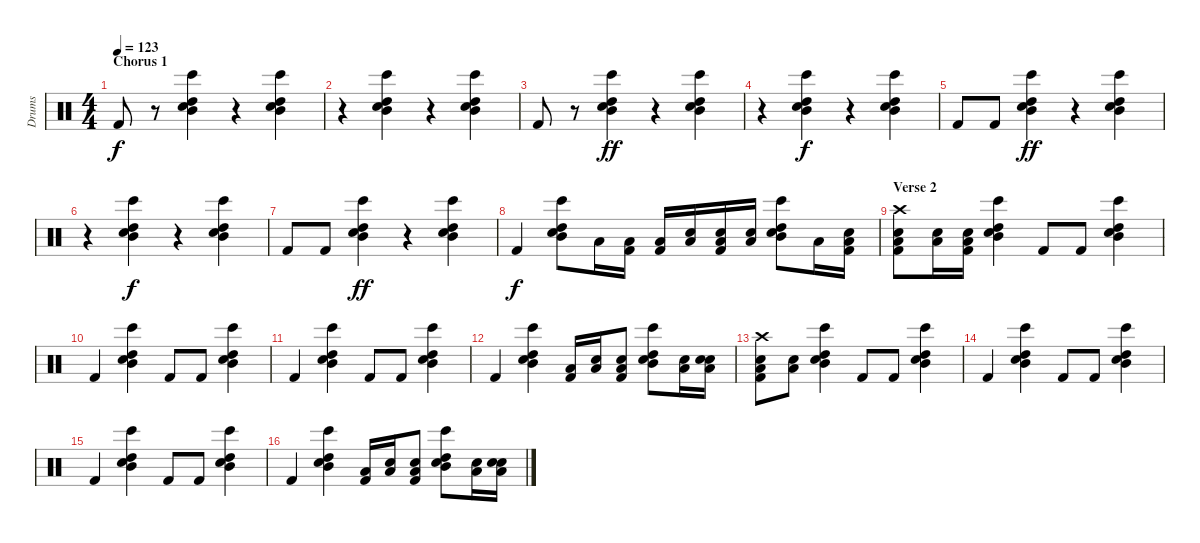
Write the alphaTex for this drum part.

\track ("Drums" "Drums") {instrument percussion}
\staff {score}
\articulation defaults
\ts (4 4)
\section ("" "Chorus 1")
\tempo 123
\clef neutral
\ks c "Kick (hit) 2".8{dy f}
r.8 ("Bongo High (hit)" "High Tom (hit)" "Mid Tom (hit)" "Snare (hit) 2").4 r.4 ("Bongo High (hit)" "High Tom (hit)" "Mid Tom (hit)" "Snare (hit) 2").4 |
r.4 ("Bongo High (hit)" "High Tom (hit)" "Mid Tom (hit)" "Snare (hit) 2").4 r.4 ("Bongo High (hit)" "High Tom (hit)" "Mid Tom (hit)" "Snare (hit) 2").4 |
"Kick (hit) 2".8 r.8 ("Bongo High (hit)" "High Tom (hit)" "Mid Tom (hit)" "Snare (hit) 2").4{dy ff} r.4 ("Bongo High (hit)" "High Tom (hit)" "Mid Tom (hit)" "Snare (hit) 2").4 |
r.4 ("Bongo High (hit)" "High Tom (hit)" "Mid Tom (hit)" "Snare (hit) 2").4{dy f} r.4 ("Bongo High (hit)" "High Tom (hit)" "Mid Tom (hit)" "Snare (hit) 2").4 |
"Kick (hit) 2".8 "Kick (hit) 2".8 ("Bongo High (hit)" "High Tom (hit)" "Mid Tom (hit)" "Snare (hit) 2").4{dy ff} r.4 ("Bongo High (hit)" "High Tom (hit)" "Mid Tom (hit)" "Snare (hit) 2").4 |
r.4 ("Bongo High (hit)" "High Tom (hit)" "Mid Tom (hit)" "Snare (hit) 2").4{dy f} r.4 ("Bongo High (hit)" "High Tom (hit)" "Mid Tom (hit)" "Snare (hit) 2").4 |
"Kick (hit) 2".8 "Kick (hit) 2".8 ("Bongo High (hit)" "High Tom (hit)" "Mid Tom (hit)" "Snare (hit) 2").4{dy ff} r.4 ("Bongo High (hit)" "High Tom (hit)" "Mid Tom (hit)" "Snare (hit) 2").4 |
"Kick (hit) 2".4{dy f} ("Bongo High (hit)" "High Tom (hit)" "Mid Tom (hit)" "Snare (hit) 2").8 "Low Tom (hit)".16 ("Low Tom (hit)" "Kick (hit) 2").16 ("Low Tom (hit)" "Kick (hit) 2").16 ("Snare (hit) 2" "Low Tom (hit)").16 ("Snare (hit) 2" "Low Tom (hit)" "Kick (hit) 2").16 ("Snare (hit) 2" "Low Floor Tom (hit)").16 ("Bongo High (hit)" "High Tom (hit)" "Mid Tom (hit)" "Snare (hit) 2").8 "Low Floor Tom (hit)".16 ("Snare (hit) 2" "Low Floor Tom (hit)" "Kick (hit) 2").16 |
\section ("" "Verse 2")
("Crash high (hit)" "Snare (hit) 2" "Low Tom (hit)" "Kick (hit) 2").8 ("Snare (hit) 2" "Low Tom (hit)").16 ("Snare (hit) 2" "Low Tom (hit)" "Kick (hit) 2").16 ("Bongo High (hit)" "High Tom (hit)" "Mid Tom (hit)" "Snare (hit) 2").4 "Kick (hit) 2".8 "Kick (hit) 2".8 ("Bongo High (hit)" "High Tom (hit)" "Mid Tom (hit)" "Snare (hit) 2").4 |
"Kick (hit) 2".4 ("Bongo High (hit)" "High Tom (hit)" "Mid Tom (hit)" "Snare (hit) 2").4 "Kick (hit) 2".8 "Kick (hit) 2".8 ("Bongo High (hit)" "High Tom (hit)" "Mid Tom (hit)" "Snare (hit) 2").4 |
"Kick (hit) 2".4 ("Bongo High (hit)" "High Tom (hit)" "Mid Tom (hit)" "Snare (hit) 2").4 "Kick (hit) 2".8 "Kick (hit) 2".8 ("Bongo High (hit)" "High Tom (hit)" "Mid Tom (hit)" "Snare (hit) 2").4 |
"Kick (hit) 2".4 ("Bongo High (hit)" "High Tom (hit)" "Mid Tom (hit)" "Snare (hit) 2").4 ("Low Floor Tom (hit)" "Kick (hit) 2").16 ("Snare (hit) 2" "Low Floor Tom (hit)").16 ("Snare (hit) 2" "Low Floor Tom (hit)" "Kick (hit) 2").8 ("Bongo High (hit)" "High Tom (hit)" "Mid Tom (hit)" "Snare (hit) 2").8 ("Low Floor Tom (hit)" "Snare (hit) 2").16 ("Snare (hit) 2" "Low Floor Tom (hit)" "Snare (hit) 2").16 |
("Crash high (hit)" "Snare (hit) 2" "Low Floor Tom (hit)" "Kick (hit) 2").8 ("Snare (hit) 2" "Low Floor Tom (hit)").8 ("Bongo High (hit)" "High Tom (hit)" "Mid Tom (hit)" "Snare (hit) 2").4 "Kick (hit) 2".8 "Kick (hit) 2".8 ("Bongo High (hit)" "High Tom (hit)" "Mid Tom (hit)" "Snare (hit) 2").4 |
"Kick (hit) 2".4 ("Bongo High (hit)" "High Tom (hit)" "Mid Tom (hit)" "Snare (hit) 2").4 "Kick (hit) 2".8 "Kick (hit) 2".8 ("Bongo High (hit)" "High Tom (hit)" "Mid Tom (hit)" "Snare (hit) 2").4 |
"Kick (hit) 2".4 ("Bongo High (hit)" "High Tom (hit)" "Mid Tom (hit)" "Snare (hit) 2").4 "Kick (hit) 2".8 "Kick (hit) 2".8 ("Bongo High (hit)" "High Tom (hit)" "Mid Tom (hit)" "Snare (hit) 2").4 |
"Kick (hit) 2".4 ("Bongo High (hit)" "High Tom (hit)" "Mid Tom (hit)" "Snare (hit) 2").4 ("Low Floor Tom (hit)" "Kick (hit) 2").16 ("Snare (hit) 2" "Low Floor Tom (hit)").16 ("Snare (hit) 2" "Low Floor Tom (hit)" "Kick (hit) 2").8 ("Bongo High (hit)" "High Tom (hit)" "Mid Tom (hit)" "Snare (hit) 2").8 ("Low Floor Tom (hit)" "Snare (hit) 2").16 ("Snare (hit) 2" "Low Floor Tom (hit)" "Snare (hit) 2").16
